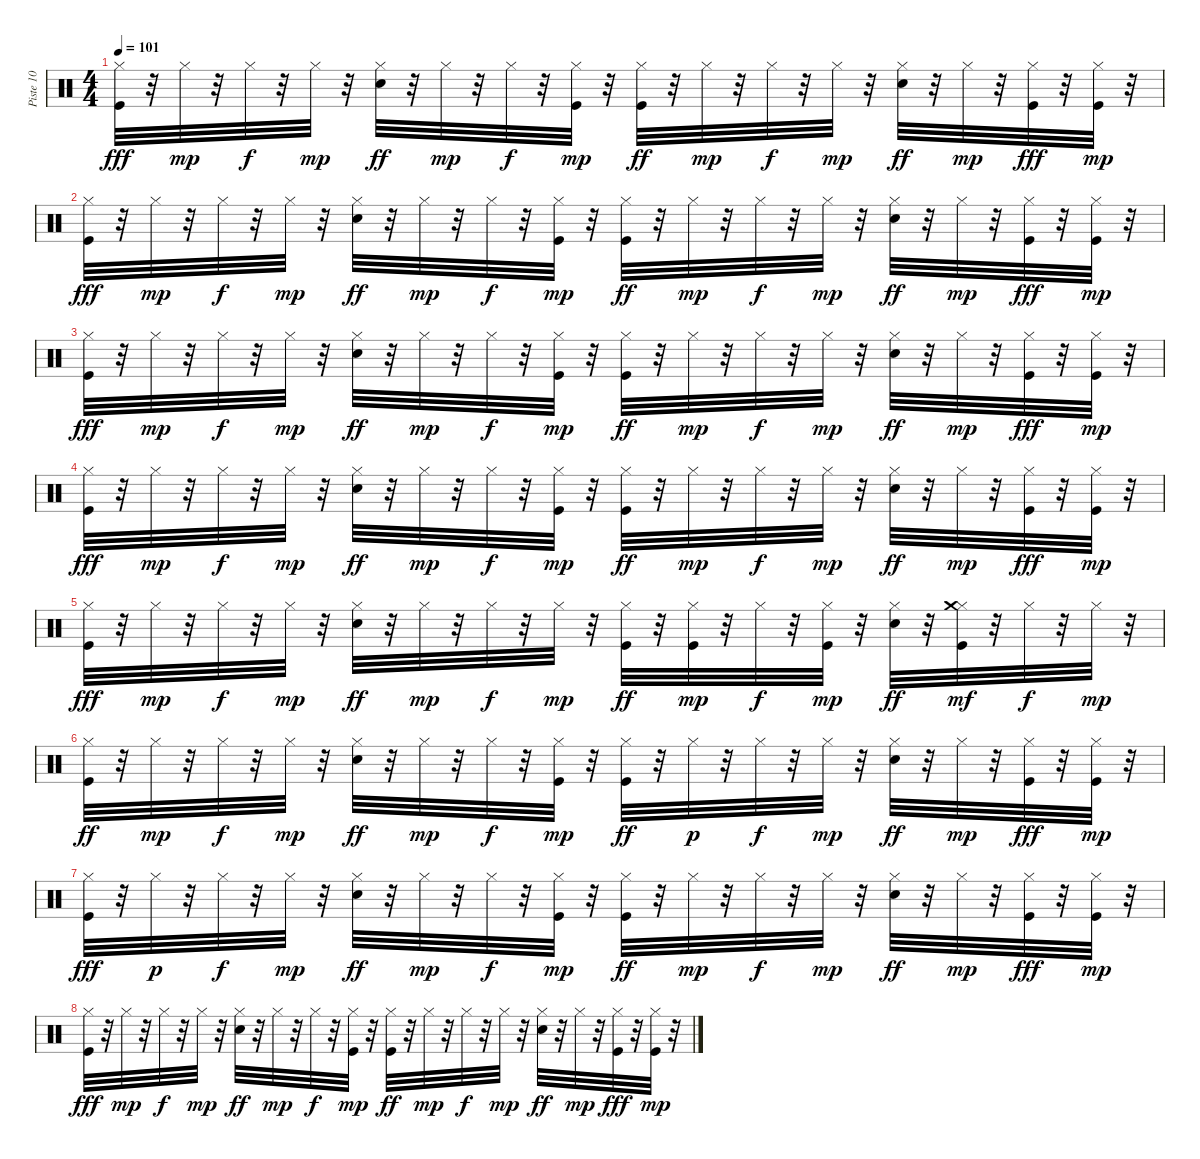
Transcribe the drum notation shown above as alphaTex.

\track ("Piste 10" "Piste 10") {instrument percussion}
\staff {score}
\articulation defaults
\ts (4 4)
\tempo 101
\clef neutral
\ks c
("Kick (hit)" "Hi-Hat (closed)").32{dy fff} r.32 "Hi-Hat (closed)".32{dy mp} r.32 "Hi-Hat (closed)".32{dy f} r.32 "Hi-Hat (closed)".32{dy mp} r.32 ("Electric Snare (hit)" "Hi-Hat (closed)").32{dy ff} r.32 "Hi-Hat (closed)".32{dy mp} r.32 "Hi-Hat (closed)".32{dy f} r.32 ("Kick (hit)" "Hi-Hat (closed)").32{dy mp} r.32 ("Kick (hit)" "Hi-Hat (closed)").32{dy ff} r.32 "Hi-Hat (closed)".32{dy mp} r.32 "Hi-Hat (closed)".32{dy f} r.32 "Hi-Hat (closed)".32{dy mp} r.32 ("Electric Snare (hit)" "Hi-Hat (closed)").32{dy ff} r.32 "Hi-Hat (closed)".32{dy mp} r.32 ("Kick (hit)" "Hi-Hat (closed)").32{dy fff} r.32 ("Kick (hit)" "Hi-Hat (closed)").32{dy mp} r.32 |
("Kick (hit)" "Hi-Hat (closed)").32{dy fff} r.32 "Hi-Hat (closed)".32{dy mp} r.32 "Hi-Hat (closed)".32{dy f} r.32 "Hi-Hat (closed)".32{dy mp} r.32 ("Electric Snare (hit)" "Hi-Hat (closed)").32{dy ff} r.32 "Hi-Hat (closed)".32{dy mp} r.32 "Hi-Hat (closed)".32{dy f} r.32 ("Kick (hit)" "Hi-Hat (closed)").32{dy mp} r.32 ("Kick (hit)" "Hi-Hat (closed)").32{dy ff} r.32 "Hi-Hat (closed)".32{dy mp} r.32 "Hi-Hat (closed)".32{dy f} r.32 "Hi-Hat (closed)".32{dy mp} r.32 ("Electric Snare (hit)" "Hi-Hat (closed)").32{dy ff} r.32 "Hi-Hat (closed)".32{dy mp} r.32 ("Kick (hit)" "Hi-Hat (closed)").32{dy fff} r.32 ("Kick (hit)" "Hi-Hat (closed)").32{dy mp} r.32 |
("Kick (hit)" "Hi-Hat (closed)").32{dy fff} r.32 "Hi-Hat (closed)".32{dy mp} r.32 "Hi-Hat (closed)".32{dy f} r.32 "Hi-Hat (closed)".32{dy mp} r.32 ("Electric Snare (hit)" "Hi-Hat (closed)").32{dy ff} r.32 "Hi-Hat (closed)".32{dy mp} r.32 "Hi-Hat (closed)".32{dy f} r.32 ("Kick (hit)" "Hi-Hat (closed)").32{dy mp} r.32 ("Kick (hit)" "Hi-Hat (closed)").32{dy ff} r.32 "Hi-Hat (closed)".32{dy mp} r.32 "Hi-Hat (closed)".32{dy f} r.32 "Hi-Hat (closed)".32{dy mp} r.32 ("Electric Snare (hit)" "Hi-Hat (closed)").32{dy ff} r.32 "Hi-Hat (closed)".32{dy mp} r.32 ("Kick (hit)" "Hi-Hat (closed)").32{dy fff} r.32 ("Kick (hit)" "Hi-Hat (closed)").32{dy mp} r.32 |
("Kick (hit)" "Hi-Hat (closed)").32{dy fff} r.32 "Hi-Hat (closed)".32{dy mp} r.32 "Hi-Hat (closed)".32{dy f} r.32 "Hi-Hat (closed)".32{dy mp} r.32 ("Electric Snare (hit)" "Hi-Hat (closed)").32{dy ff} r.32 "Hi-Hat (closed)".32{dy mp} r.32 "Hi-Hat (closed)".32{dy f} r.32 ("Kick (hit)" "Hi-Hat (closed)").32{dy mp} r.32 ("Kick (hit)" "Hi-Hat (closed)").32{dy ff} r.32 "Hi-Hat (closed)".32{dy mp} r.32 "Hi-Hat (closed)".32{dy f} r.32 "Hi-Hat (closed)".32{dy mp} r.32 ("Electric Snare (hit)" "Hi-Hat (closed)").32{dy ff} r.32 "Hi-Hat (closed)".32{dy mp} r.32 ("Kick (hit)" "Hi-Hat (closed)").32{dy fff} r.32 ("Kick (hit)" "Hi-Hat (closed)").32{dy mp} r.32 |
("Kick (hit)" "Hi-Hat (closed)").32{dy fff} r.32 "Hi-Hat (closed)".32{dy mp} r.32 "Hi-Hat (closed)".32{dy f} r.32 "Hi-Hat (closed)".32{dy mp} r.32 ("Electric Snare (hit)" "Hi-Hat (closed)").32{dy ff} r.32 "Hi-Hat (closed)".32{dy mp} r.32 "Hi-Hat (closed)".32{dy f} r.32 "Hi-Hat (closed)".32{dy mp} r.32 ("Kick (hit)" "Hi-Hat (closed)").32{dy ff} r.32 ("Kick (hit)" "Hi-Hat (closed)").32{dy mp} r.32 "Hi-Hat (closed)".32{dy f} r.32 ("Kick (hit)" "Hi-Hat (closed)").32{dy mp} r.32 ("Electric Snare (hit)" "Hi-Hat (closed)").32{dy ff} r.32 ("Kick (hit)" "Hi-Hat (closed)" "Crash medium (hit)").32{dy mf} r.32 "Hi-Hat (closed)".32{dy f} r.32 "Hi-Hat (closed)".32{dy mp} r.32 |
("Kick (hit)" "Hi-Hat (closed)").32{dy ff} r.32 "Hi-Hat (closed)".32{dy mp} r.32 "Hi-Hat (closed)".32{dy f} r.32 "Hi-Hat (closed)".32{dy mp} r.32 ("Electric Snare (hit)" "Hi-Hat (closed)").32{dy ff} r.32 "Hi-Hat (closed)".32{dy mp} r.32 "Hi-Hat (closed)".32{dy f} r.32 ("Kick (hit)" "Hi-Hat (closed)").32{dy mp} r.32 ("Kick (hit)" "Hi-Hat (closed)").32{dy ff} r.32 "Hi-Hat (closed)".32{dy p} r.32 "Hi-Hat (closed)".32{dy f} r.32 "Hi-Hat (closed)".32{dy mp} r.32 ("Electric Snare (hit)" "Hi-Hat (closed)").32{dy ff} r.32 "Hi-Hat (closed)".32{dy mp} r.32 ("Kick (hit)" "Hi-Hat (closed)").32{dy fff} r.32 ("Kick (hit)" "Hi-Hat (closed)").32{dy mp} r.32 |
("Kick (hit)" "Hi-Hat (closed)").32{dy fff} r.32 "Hi-Hat (closed)".32{dy p} r.32 "Hi-Hat (closed)".32{dy f} r.32 "Hi-Hat (closed)".32{dy mp} r.32 ("Electric Snare (hit)" "Hi-Hat (closed)").32{dy ff} r.32 "Hi-Hat (closed)".32{dy mp} r.32 "Hi-Hat (closed)".32{dy f} r.32 ("Kick (hit)" "Hi-Hat (closed)").32{dy mp} r.32 ("Kick (hit)" "Hi-Hat (closed)").32{dy ff} r.32 "Hi-Hat (closed)".32{dy mp} r.32 "Hi-Hat (closed)".32{dy f} r.32 "Hi-Hat (closed)".32{dy mp} r.32 ("Electric Snare (hit)" "Hi-Hat (closed)").32{dy ff} r.32 "Hi-Hat (closed)".32{dy mp} r.32 ("Kick (hit)" "Hi-Hat (closed)").32{dy fff} r.32 ("Kick (hit)" "Hi-Hat (closed)").32{dy mp} r.32 |
("Kick (hit)" "Hi-Hat (closed)").32{dy fff} r.32 "Hi-Hat (closed)".32{dy mp} r.32 "Hi-Hat (closed)".32{dy f} r.32 "Hi-Hat (closed)".32{dy mp} r.32 ("Electric Snare (hit)" "Hi-Hat (closed)").32{dy ff} r.32 "Hi-Hat (closed)".32{dy mp} r.32 "Hi-Hat (closed)".32{dy f} r.32 ("Kick (hit)" "Hi-Hat (closed)").32{dy mp} r.32 ("Kick (hit)" "Hi-Hat (closed)").32{dy ff} r.32 "Hi-Hat (closed)".32{dy mp} r.32 "Hi-Hat (closed)".32{dy f} r.32 "Hi-Hat (closed)".32{dy mp} r.32 ("Electric Snare (hit)" "Hi-Hat (closed)").32{dy ff} r.32 "Hi-Hat (closed)".32{dy mp} r.32 ("Kick (hit)" "Hi-Hat (closed)").32{dy fff} r.32 ("Kick (hit)" "Hi-Hat (closed)").32{dy mp} r.32
